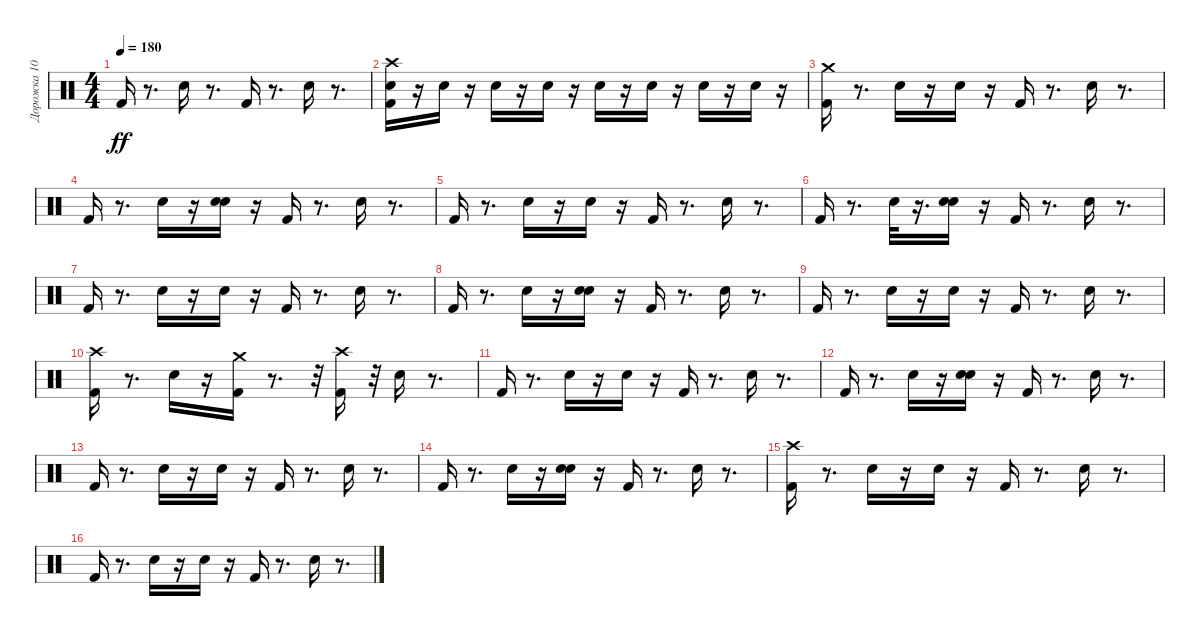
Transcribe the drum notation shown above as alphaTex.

\track ("Дорожка 10" "Дорожка 10") {instrument percussion}
\staff {score}
\articulation defaults
\ts (4 4)
\tempo 180
\clef neutral
\ks c "Kick (hit) 2".16{dy ff}
r.8{d} "Electric Snare (hit)".16 r.8{d} "Kick (hit) 2".16 r.8{d} "Electric Snare (hit)".16 r.8{d} |
("Electric Snare (hit)" "Crash high (hit)" "Kick (hit) 2").16 r.16 "Electric Snare (hit)".16 r.16 "Electric Snare (hit)".16 r.16 "Electric Snare (hit)".16 r.16 "Electric Snare (hit)".16 r.16 "Electric Snare (hit)".16 r.16 "Electric Snare (hit)".16 r.16 "Electric Snare (hit)".16 r.16 |
("Crash medium (hit)" "Kick (hit) 2").16 r.8{d} "Electric Snare (hit)".16 r.16 "Electric Snare (hit)".16 r.16 "Kick (hit) 2".16 r.8{d} "Electric Snare (hit)".16 r.8{d} |
"Kick (hit) 2".16 r.8{d} "Electric Snare (hit)".16 r.16 ("Electric Snare (hit)" "Hand Clap (hit)").16 r.16 "Kick (hit) 2".16 r.8{d} "Electric Snare (hit)".16 r.8{d} |
"Kick (hit) 2".16 r.8{d} "Electric Snare (hit)".16 r.16 "Electric Snare (hit)".16 r.16 "Kick (hit) 2".16 r.8{d} "Electric Snare (hit)".16 r.8{d} |
"Kick (hit) 2".16 r.8{d} "Electric Snare (hit)".32 r.16{d} ("Electric Snare (hit)" "Hand Clap (hit)").16 r.16 "Kick (hit) 2".16 r.8{d} "Electric Snare (hit)".16 r.8{d} |
"Kick (hit) 2".16 r.8{d} "Electric Snare (hit)".16 r.16 "Electric Snare (hit)".16 r.16 "Kick (hit) 2".16 r.8{d} "Electric Snare (hit)".16 r.8{d} |
"Kick (hit) 2".16 r.8{d} "Electric Snare (hit)".16 r.16 ("Electric Snare (hit)" "Hand Clap (hit)").16 r.16 "Kick (hit) 2".16 r.8{d} "Electric Snare (hit)".16 r.8{d} |
"Kick (hit) 2".16 r.8{d} "Electric Snare (hit)".16 r.16 "Electric Snare (hit)".16 r.16 "Kick (hit) 2".16 r.8{d} "Electric Snare (hit)".16 r.8{d} |
("Crash high (hit)" "Kick (hit) 2").16 r.8{d} "Electric Snare (hit)".16 r.16 ("Crash medium (hit)" "Kick (hit) 2").16 r.8{d} r.32 ("Crash high (hit)" "Kick (hit) 2").16 r.32 "Electric Snare (hit)".16 r.8{d} |
"Kick (hit) 2".16 r.8{d} "Electric Snare (hit)".16 r.16 "Electric Snare (hit)".16 r.16 "Kick (hit) 2".16 r.8{d} "Electric Snare (hit)".16 r.8{d} |
"Kick (hit) 2".16 r.8{d} "Electric Snare (hit)".16 r.16 ("Electric Snare (hit)" "Hand Clap (hit)").16 r.16 "Kick (hit) 2".16 r.8{d} "Electric Snare (hit)".16 r.8{d} |
"Kick (hit) 2".16 r.8{d} "Electric Snare (hit)".16 r.16 "Electric Snare (hit)".16 r.16 "Kick (hit) 2".16 r.8{d} "Electric Snare (hit)".16 r.8{d} |
"Kick (hit) 2".16 r.8{d} "Electric Snare (hit)".16 r.16 ("Hand Clap (hit)" "Electric Snare (hit)").16 r.16 "Kick (hit) 2".16 r.8{d} "Electric Snare (hit)".16 r.8{d} |
("Crash high (hit)" "Kick (hit) 2").16 r.8{d} "Electric Snare (hit)".16 r.16 "Electric Snare (hit)".16 r.16 "Kick (hit) 2".16 r.8{d} "Electric Snare (hit)".16 r.8{d} |
"Kick (hit) 2".16 r.8{d} "Electric Snare (hit)".16 r.16 "Electric Snare (hit)".16 r.16 "Kick (hit) 2".16 r.8{d} "Electric Snare (hit)".16 r.8{d}
